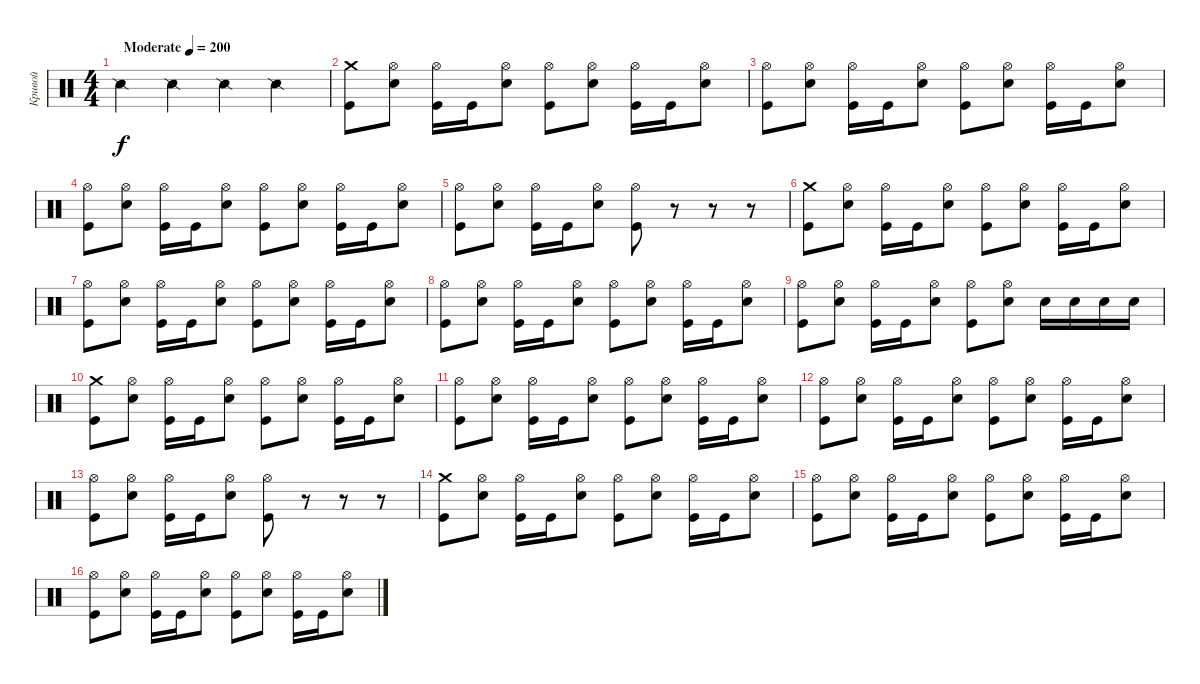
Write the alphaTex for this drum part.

\track ("Кривой" "Кривой") {instrument percussion}
\staff {score}
\articulation defaults
\ts (4 4)
\tempo (200 "Moderate")
\clef neutral
\ks c "Snare (side stick) 2".4{dy f} "Snare (side stick) 2".4 "Snare (side stick) 2".4 "Snare (side stick) 2".4
|
("Crash medium (hit)" "Kick (hit)").8 ("Hi-Hat (open)" "Electric Snare (hit)").8 ("Hi-Hat (open)" "Kick (hit)").16 "Kick (hit)".16 ("Hi-Hat (open)" "Electric Snare (hit)").8 ("Hi-Hat (open)" "Kick (hit)").8 ("Hi-Hat (open)" "Electric Snare (hit)").8 ("Hi-Hat (open)" "Kick (hit)").16 "Kick (hit)".16 ("Hi-Hat (open)" "Electric Snare (hit)").8 |
("Hi-Hat (open)" "Kick (hit)").8 ("Hi-Hat (open)" "Electric Snare (hit)").8 ("Hi-Hat (open)" "Kick (hit)").16 "Kick (hit)".16 ("Hi-Hat (open)" "Electric Snare (hit)").8 ("Hi-Hat (open)" "Kick (hit)").8 ("Hi-Hat (open)" "Electric Snare (hit)").8 ("Hi-Hat (open)" "Kick (hit)").16 "Kick (hit)".16 ("Hi-Hat (open)" "Electric Snare (hit)").8 |
("Hi-Hat (open)" "Kick (hit)").8 ("Hi-Hat (open)" "Electric Snare (hit)").8 ("Hi-Hat (open)" "Kick (hit)").16 "Kick (hit)".16 ("Hi-Hat (open)" "Electric Snare (hit)").8 ("Hi-Hat (open)" "Kick (hit)").8 ("Hi-Hat (open)" "Electric Snare (hit)").8 ("Hi-Hat (open)" "Kick (hit)").16 "Kick (hit)".16 ("Hi-Hat (open)" "Electric Snare (hit)").8 |
("Hi-Hat (open)" "Kick (hit)").8 ("Hi-Hat (open)" "Electric Snare (hit)").8 ("Hi-Hat (open)" "Kick (hit)").16 "Kick (hit)".16 ("Hi-Hat (open)" "Electric Snare (hit)").8 ("Hi-Hat (open)" "Kick (hit)").8 r.8 r.8 r.8 |
("Crash medium (hit)" "Kick (hit)").8 ("Hi-Hat (open)" "Electric Snare (hit)").8 ("Hi-Hat (open)" "Kick (hit)").16 "Kick (hit)".16 ("Hi-Hat (open)" "Electric Snare (hit)").8 ("Hi-Hat (open)" "Kick (hit)").8 ("Hi-Hat (open)" "Electric Snare (hit)").8 ("Hi-Hat (open)" "Kick (hit)").16 "Kick (hit)".16 ("Hi-Hat (open)" "Electric Snare (hit)").8 |
("Hi-Hat (open)" "Kick (hit)").8 ("Hi-Hat (open)" "Electric Snare (hit)").8 ("Hi-Hat (open)" "Kick (hit)").16 "Kick (hit)".16 ("Hi-Hat (open)" "Electric Snare (hit)").8 ("Hi-Hat (open)" "Kick (hit)").8 ("Hi-Hat (open)" "Electric Snare (hit)").8 ("Hi-Hat (open)" "Kick (hit)").16 "Kick (hit)".16 ("Hi-Hat (open)" "Electric Snare (hit)").8 |
("Hi-Hat (open)" "Kick (hit)").8 ("Hi-Hat (open)" "Electric Snare (hit)").8 ("Hi-Hat (open)" "Kick (hit)").16 "Kick (hit)".16 ("Hi-Hat (open)" "Electric Snare (hit)").8 ("Hi-Hat (open)" "Kick (hit)").8 ("Hi-Hat (open)" "Electric Snare (hit)").8 ("Hi-Hat (open)" "Kick (hit)").16 "Kick (hit)".16 ("Hi-Hat (open)" "Electric Snare (hit)").8 |
("Hi-Hat (open)" "Kick (hit)").8 ("Hi-Hat (open)" "Electric Snare (hit)").8 ("Hi-Hat (open)" "Kick (hit)").16 "Kick (hit)".16 ("Hi-Hat (open)" "Electric Snare (hit)").8 ("Hi-Hat (open)" "Kick (hit)").8 ("Hi-Hat (open)" "Electric Snare (hit)").8 "Electric Snare (hit)".16 "Electric Snare (hit)".16 "Electric Snare (hit)".16 "Electric Snare (hit)".16 |
("Crash medium (hit)" "Kick (hit)").8 ("Hi-Hat (open)" "Electric Snare (hit)").8 ("Hi-Hat (open)" "Kick (hit)").16 "Kick (hit)".16 ("Hi-Hat (open)" "Electric Snare (hit)").8 ("Hi-Hat (open)" "Kick (hit)").8 ("Hi-Hat (open)" "Electric Snare (hit)").8 ("Hi-Hat (open)" "Kick (hit)").16 "Kick (hit)".16 ("Hi-Hat (open)" "Electric Snare (hit)").8 |
("Hi-Hat (open)" "Kick (hit)").8 ("Hi-Hat (open)" "Electric Snare (hit)").8 ("Hi-Hat (open)" "Kick (hit)").16 "Kick (hit)".16 ("Hi-Hat (open)" "Electric Snare (hit)").8 ("Hi-Hat (open)" "Kick (hit)").8 ("Hi-Hat (open)" "Electric Snare (hit)").8 ("Hi-Hat (open)" "Kick (hit)").16 "Kick (hit)".16 ("Hi-Hat (open)" "Electric Snare (hit)").8 |
("Hi-Hat (open)" "Kick (hit)").8 ("Hi-Hat (open)" "Electric Snare (hit)").8 ("Hi-Hat (open)" "Kick (hit)").16 "Kick (hit)".16 ("Hi-Hat (open)" "Electric Snare (hit)").8 ("Hi-Hat (open)" "Kick (hit)").8 ("Hi-Hat (open)" "Electric Snare (hit)").8 ("Hi-Hat (open)" "Kick (hit)").16 "Kick (hit)".16 ("Hi-Hat (open)" "Electric Snare (hit)").8 |
("Hi-Hat (open)" "Kick (hit)").8 ("Hi-Hat (open)" "Electric Snare (hit)").8 ("Hi-Hat (open)" "Kick (hit)").16 "Kick (hit)".16 ("Hi-Hat (open)" "Electric Snare (hit)").8 ("Hi-Hat (open)" "Kick (hit)").8 r.8 r.8 r.8 |
("Crash medium (hit)" "Kick (hit)").8 ("Hi-Hat (open)" "Electric Snare (hit)").8 ("Hi-Hat (open)" "Kick (hit)").16 "Kick (hit)".16 ("Hi-Hat (open)" "Electric Snare (hit)").8 ("Hi-Hat (open)" "Kick (hit)").8 ("Hi-Hat (open)" "Electric Snare (hit)").8 ("Hi-Hat (open)" "Kick (hit)").16 "Kick (hit)".16 ("Hi-Hat (open)" "Electric Snare (hit)").8 |
("Hi-Hat (open)" "Kick (hit)").8 ("Hi-Hat (open)" "Electric Snare (hit)").8 ("Hi-Hat (open)" "Kick (hit)").16 "Kick (hit)".16 ("Hi-Hat (open)" "Electric Snare (hit)").8 ("Hi-Hat (open)" "Kick (hit)").8 ("Hi-Hat (open)" "Electric Snare (hit)").8 ("Hi-Hat (open)" "Kick (hit)").16 "Kick (hit)".16 ("Hi-Hat (open)" "Electric Snare (hit)").8 |
("Hi-Hat (open)" "Kick (hit)").8 ("Hi-Hat (open)" "Electric Snare (hit)").8 ("Hi-Hat (open)" "Kick (hit)").16 "Kick (hit)".16 ("Hi-Hat (open)" "Electric Snare (hit)").8 ("Hi-Hat (open)" "Kick (hit)").8 ("Hi-Hat (open)" "Electric Snare (hit)").8 ("Hi-Hat (open)" "Kick (hit)").16 "Kick (hit)".16 ("Hi-Hat (open)" "Electric Snare (hit)").8
